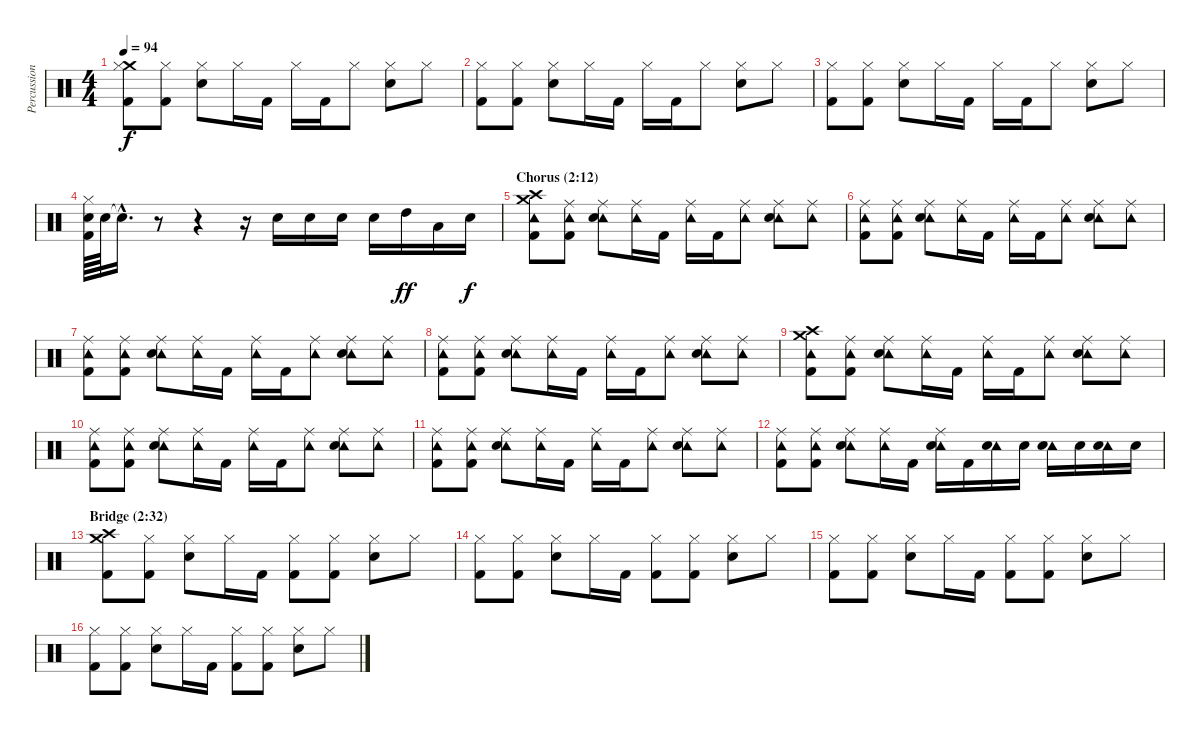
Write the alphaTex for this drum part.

\track ("Percussion" "Percussion") {instrument percussion}
\staff {score}
\articulation defaults
\ts (4 4)
\tempo 94
\clef neutral
\ks c
("Crash medium (hit)" "Hi-Hat (closed)" "Kick (hit) 2").8{dy f} ("Hi-Hat (closed)" "Kick (hit) 2").8 ("Hi-Hat (closed)" "Snare (hit) 2").8 "Hi-Hat (closed)".16 "Kick (hit) 2".16 "Hi-Hat (closed)".16 "Kick (hit) 2".16 "Hi-Hat (closed)".8 ("Hi-Hat (closed)" "Snare (hit) 2").8 "Hi-Hat (closed)".8 |
("Hi-Hat (closed)" "Kick (hit) 2").8 ("Hi-Hat (closed)" "Kick (hit) 2").8 ("Hi-Hat (closed)" "Snare (hit) 2").8 "Hi-Hat (closed)".16 "Kick (hit) 2".16 "Hi-Hat (closed)".16 "Kick (hit) 2".16 "Hi-Hat (closed)".8 ("Hi-Hat (closed)" "Snare (hit) 2").8 "Hi-Hat (closed)".8 |
("Hi-Hat (closed)" "Kick (hit) 2").8 ("Hi-Hat (closed)" "Kick (hit) 2").8 ("Hi-Hat (closed)" "Snare (hit) 2").8 "Hi-Hat (closed)".16 "Kick (hit) 2".16 "Hi-Hat (closed)".16 "Kick (hit) 2".16 "Hi-Hat (closed)".8 ("Hi-Hat (closed)" "Snare (hit) 2").8 "Hi-Hat (closed)".8 |
("Hi-Hat (closed)" "Snare (hit) 2" "Kick (hit) 2").64 "Snare (hit) 2".64 "Snare (hit)"{hac t}.16{d} r.8 r.4 r.16 "Snare (hit) 2".16 "Snare (hit) 2".16 "Snare (hit) 2".16 "Snare (hit) 2".16 "High Tom (hit)".16{dy ff} "Low Tom (hit)".16 "Snare (hit) 2".16{dy f} |
\section ("" "Chorus (2:12)")
("Crash high (hit)" "Crash medium (hit)" "Tambourine (hit)" "Kick (hit) 2").8 ("Ride (middle)" "Tambourine (hit)" "Kick (hit) 2").8 ("Ride (middle)" "Tambourine (hit)" "Snare (hit) 2").8 ("Ride (middle)" "Tambourine (hit)").16 "Kick (hit) 2".16 ("Ride (middle)" "Tambourine (hit)").16 "Kick (hit) 2".16 ("Ride (middle)" "Tambourine (hit)").8 ("Ride (middle)" "Tambourine (hit)" "Snare (hit) 2").8 ("Ride (middle)" "Tambourine (hit)").8 |
("Ride (middle)" "Tambourine (hit)" "Kick (hit) 2").8 ("Ride (middle)" "Tambourine (hit)" "Kick (hit) 2").8 ("Ride (middle)" "Tambourine (hit)" "Snare (hit) 2").8 ("Ride (middle)" "Tambourine (hit)").16 "Kick (hit) 2".16 ("Ride (middle)" "Tambourine (hit)").16 "Kick (hit) 2".16 ("Ride (middle)" "Tambourine (hit)").8 ("Ride (middle)" "Tambourine (hit)" "Snare (hit) 2").8 ("Ride (middle)" "Tambourine (hit)").8 |
("Ride (middle)" "Tambourine (hit)" "Kick (hit) 2").8 ("Ride (middle)" "Tambourine (hit)" "Kick (hit) 2").8 ("Ride (middle)" "Tambourine (hit)" "Snare (hit) 2").8 ("Ride (middle)" "Tambourine (hit)").16 "Kick (hit) 2".16 ("Ride (middle)" "Tambourine (hit)").16 "Kick (hit) 2".16 ("Ride (middle)" "Tambourine (hit)").8 ("Ride (middle)" "Tambourine (hit)" "Snare (hit) 2").8 ("Ride (middle)" "Tambourine (hit)").8 |
("Ride (middle)" "Tambourine (hit)" "Kick (hit) 2").8 ("Ride (middle)" "Tambourine (hit)" "Kick (hit) 2").8 ("Ride (middle)" "Tambourine (hit)" "Snare (hit) 2").8 ("Ride (middle)" "Tambourine (hit)").16 "Kick (hit) 2".16 ("Ride (middle)" "Tambourine (hit)").16 "Kick (hit) 2".16 ("Ride (middle)" "Tambourine (hit)").8 ("Ride (middle)" "Tambourine (hit)" "Snare (hit) 2").8 ("Ride (middle)" "Tambourine (hit)").8 |
("Crash high (hit)" "Crash medium (hit)" "Tambourine (hit)" "Kick (hit) 2").8 ("Ride (middle)" "Tambourine (hit)" "Kick (hit) 2").8 ("Ride (middle)" "Tambourine (hit)" "Snare (hit) 2").8 ("Ride (middle)" "Tambourine (hit)").16 "Kick (hit) 2".16 ("Ride (middle)" "Tambourine (hit)").16 "Kick (hit) 2".16 ("Ride (middle)" "Tambourine (hit)").8 ("Ride (middle)" "Tambourine (hit)" "Snare (hit) 2").8 ("Ride (middle)" "Tambourine (hit)").8 |
("Ride (middle)" "Tambourine (hit)" "Kick (hit) 2").8 ("Ride (middle)" "Tambourine (hit)" "Kick (hit) 2").8 ("Ride (middle)" "Tambourine (hit)" "Snare (hit) 2").8 ("Ride (middle)" "Tambourine (hit)").16 "Kick (hit) 2".16 ("Ride (middle)" "Tambourine (hit)").16 "Kick (hit) 2".16 ("Ride (middle)" "Tambourine (hit)").8 ("Ride (middle)" "Tambourine (hit)" "Snare (hit) 2").8 ("Ride (middle)" "Tambourine (hit)").8 |
("Ride (middle)" "Tambourine (hit)" "Kick (hit) 2").8 ("Ride (middle)" "Tambourine (hit)" "Kick (hit) 2").8 ("Ride (middle)" "Tambourine (hit)" "Snare (hit) 2").8 ("Ride (middle)" "Tambourine (hit)").16 "Kick (hit) 2".16 ("Ride (middle)" "Tambourine (hit)").16 "Kick (hit) 2".16 ("Ride (middle)" "Tambourine (hit)").8 ("Ride (middle)" "Tambourine (hit)" "Snare (hit) 2").8 ("Ride (middle)" "Tambourine (hit)").8 |
("Ride (middle)" "Tambourine (hit)" "Kick (hit) 2").8 ("Ride (middle)" "Tambourine (hit)" "Kick (hit) 2").8 ("Ride (middle)" "Tambourine (hit)" "Snare (hit) 2").8 ("Ride (middle)" "Tambourine (hit)").16 "Kick (hit) 2".16 ("Ride (middle)" "Tambourine (hit)" "Snare (hit) 2").16 "Kick (hit) 2".16 ("Tambourine (hit)" "Snare (hit) 2").16 "Snare (hit) 2".16 ("Tambourine (hit)" "Snare (hit) 2").16 "Snare (hit) 2".16 ("Tambourine (hit)" "Snare (hit) 2").16 "Snare (hit) 2".16 |
\section ("" "Bridge (2:32)")
("Crash medium (hit)" "Crash high (hit)" "Kick (hit) 2").8 ("Hi-Hat (closed)" "Kick (hit) 2").8 ("Hi-Hat (closed)" "Snare (hit) 2").8 "Hi-Hat (closed)".16 "Kick (hit) 2".16 ("Hi-Hat (closed)" "Kick (hit) 2").8 ("Hi-Hat (closed)" "Kick (hit) 2").8 ("Hi-Hat (closed)" "Snare (hit) 2").8 "Hi-Hat (closed)".8 |
("Hi-Hat (closed)" "Kick (hit) 2").8 ("Hi-Hat (closed)" "Kick (hit) 2").8 ("Hi-Hat (closed)" "Snare (hit) 2").8 "Hi-Hat (closed)".16 "Kick (hit) 2".16 ("Hi-Hat (closed)" "Kick (hit) 2").8 ("Hi-Hat (closed)" "Kick (hit) 2").8 ("Hi-Hat (closed)" "Snare (hit) 2").8 "Hi-Hat (closed)".8 |
("Hi-Hat (closed)" "Kick (hit) 2").8 ("Hi-Hat (closed)" "Kick (hit) 2").8 ("Hi-Hat (closed)" "Snare (hit) 2").8 "Hi-Hat (closed)".16 "Kick (hit) 2".16 ("Hi-Hat (closed)" "Kick (hit) 2").8 ("Hi-Hat (closed)" "Kick (hit) 2").8 ("Hi-Hat (closed)" "Snare (hit) 2").8 "Hi-Hat (closed)".8 |
("Hi-Hat (closed)" "Kick (hit) 2").8 ("Hi-Hat (closed)" "Kick (hit) 2").8 ("Hi-Hat (closed)" "Snare (hit) 2").8 "Hi-Hat (closed)".16 "Kick (hit) 2".16 ("Hi-Hat (closed)" "Kick (hit) 2").8 ("Hi-Hat (closed)" "Kick (hit) 2").8 ("Hi-Hat (closed)" "Snare (hit) 2").8 "Hi-Hat (closed)".8
